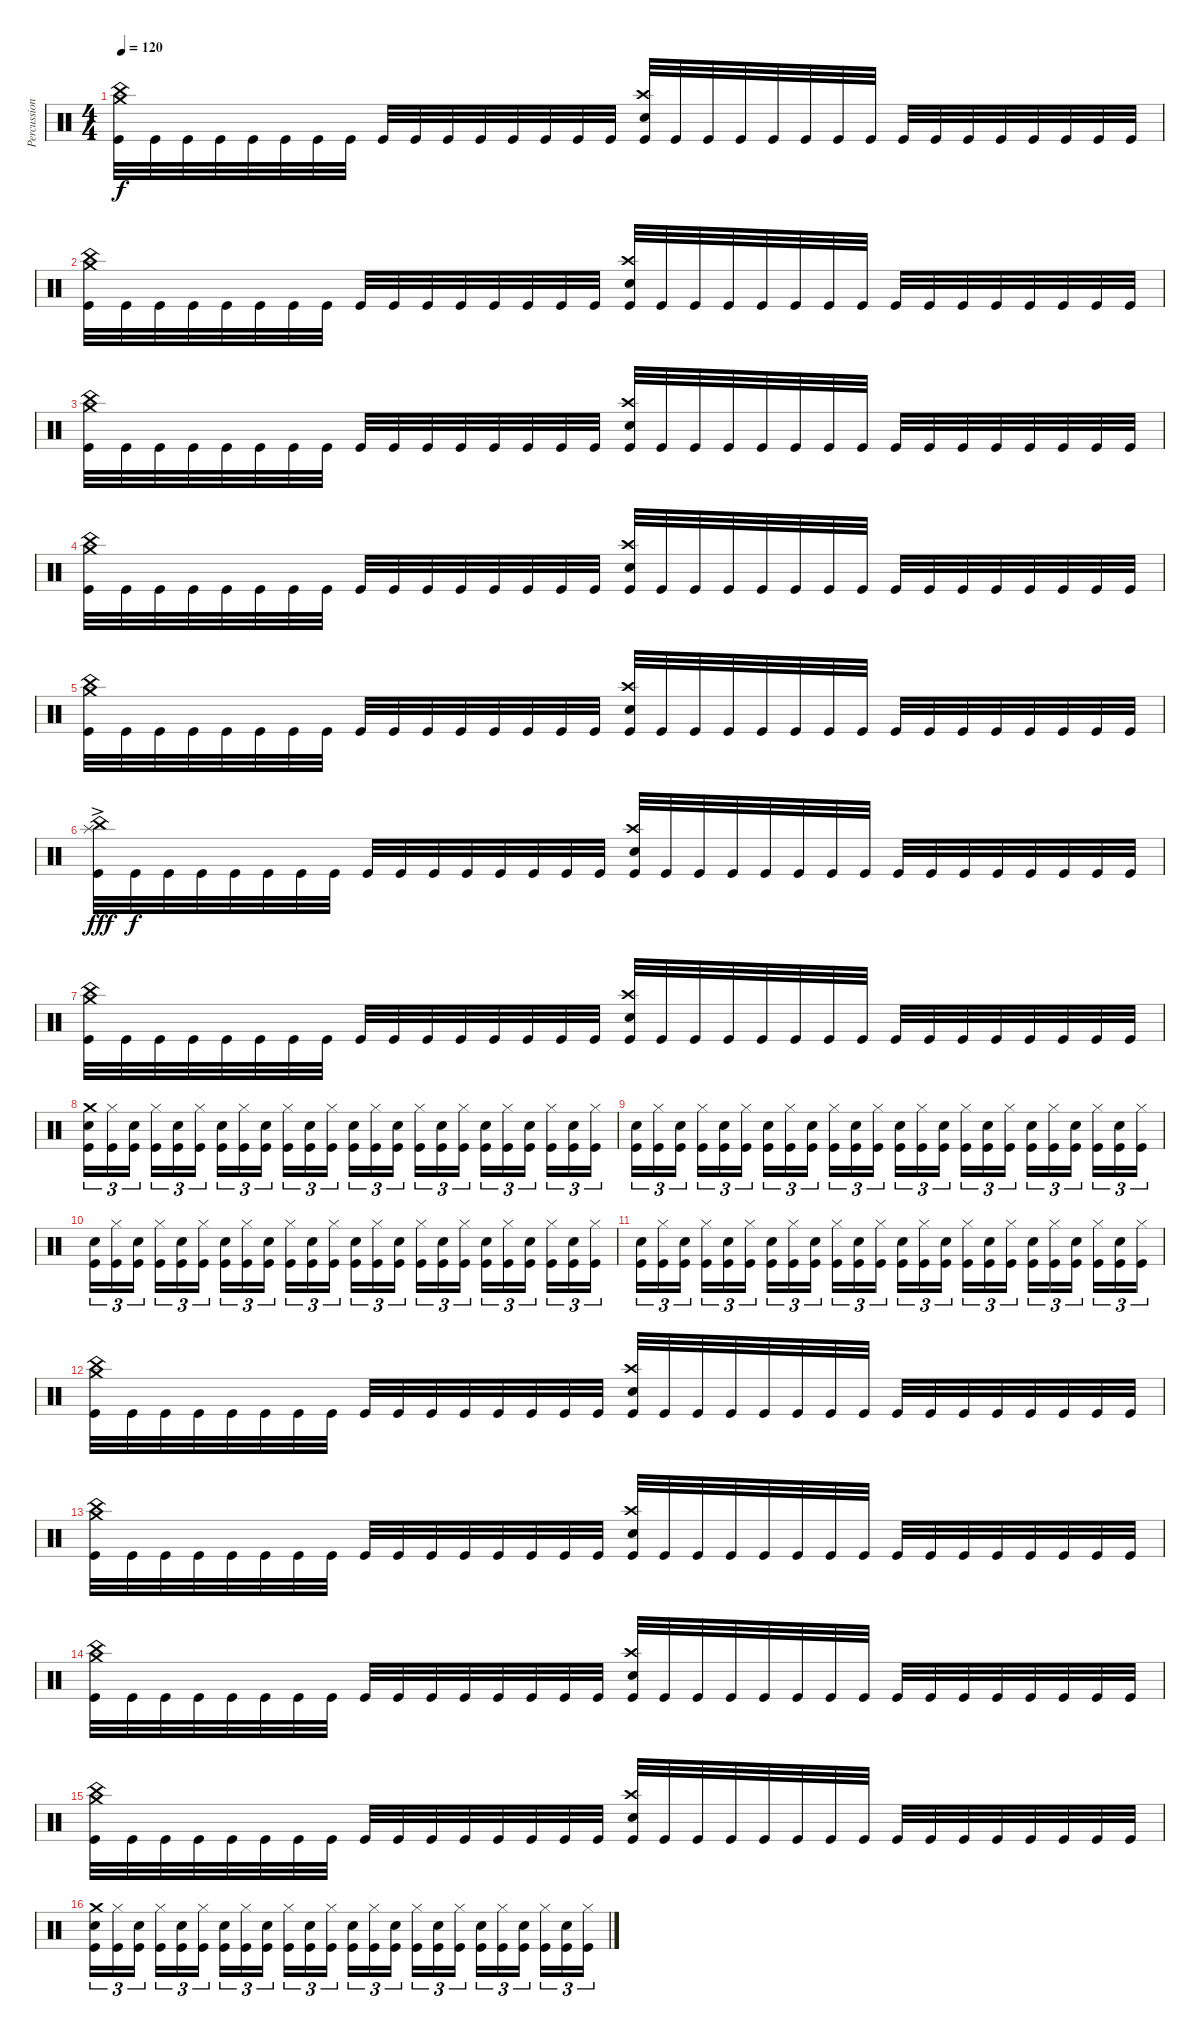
\track ("Percussion" "Percussion") {instrument percussion}
\staff {score}
\articulation defaults
\ts (4 4)
\tempo 120
\clef neutral
\ks c
("Crash medium (hit)" "China (hit)" "Kick (hit)").32{dy f} "Kick (hit)".32 "Kick (hit)".32 "Kick (hit)".32 "Kick (hit)".32 "Kick (hit)".32 "Kick (hit)".32 "Kick (hit)".32 "Kick (hit)".32 "Kick (hit)".32 "Kick (hit)".32 "Kick (hit)".32 "Kick (hit)".32 "Kick (hit)".32 "Kick (hit)".32 "Kick (hit)".32 ("Crash high (hit)" "Electric Snare (hit)" "Kick (hit)").32 "Kick (hit)".32 "Kick (hit)".32 "Kick (hit)".32 "Kick (hit)".32 "Kick (hit)".32 "Kick (hit)".32 "Kick (hit)".32 "Kick (hit)".32 "Kick (hit)".32 "Kick (hit)".32 "Kick (hit)".32 "Kick (hit)".32 "Kick (hit)".32 "Kick (hit)".32 "Kick (hit)".32 |
("Crash medium (hit)" "China (hit)" "Kick (hit)").32 "Kick (hit)".32 "Kick (hit)".32 "Kick (hit)".32 "Kick (hit)".32 "Kick (hit)".32 "Kick (hit)".32 "Kick (hit)".32 "Kick (hit)".32 "Kick (hit)".32 "Kick (hit)".32 "Kick (hit)".32 "Kick (hit)".32 "Kick (hit)".32 "Kick (hit)".32 "Kick (hit)".32 ("Crash high (hit)" "Electric Snare (hit)" "Kick (hit)").32 "Kick (hit)".32 "Kick (hit)".32 "Kick (hit)".32 "Kick (hit)".32 "Kick (hit)".32 "Kick (hit)".32 "Kick (hit)".32 "Kick (hit)".32 "Kick (hit)".32 "Kick (hit)".32 "Kick (hit)".32 "Kick (hit)".32 "Kick (hit)".32 "Kick (hit)".32 "Kick (hit)".32 |
("Crash medium (hit)" "China (hit)" "Kick (hit)").32 "Kick (hit)".32 "Kick (hit)".32 "Kick (hit)".32 "Kick (hit)".32 "Kick (hit)".32 "Kick (hit)".32 "Kick (hit)".32 "Kick (hit)".32 "Kick (hit)".32 "Kick (hit)".32 "Kick (hit)".32 "Kick (hit)".32 "Kick (hit)".32 "Kick (hit)".32 "Kick (hit)".32 ("Crash high (hit)" "Electric Snare (hit)" "Kick (hit)").32 "Kick (hit)".32 "Kick (hit)".32 "Kick (hit)".32 "Kick (hit)".32 "Kick (hit)".32 "Kick (hit)".32 "Kick (hit)".32 "Kick (hit)".32 "Kick (hit)".32 "Kick (hit)".32 "Kick (hit)".32 "Kick (hit)".32 "Kick (hit)".32 "Kick (hit)".32 "Kick (hit)".32 |
("Crash medium (hit)" "China (hit)" "Kick (hit)").32 "Kick (hit)".32 "Kick (hit)".32 "Kick (hit)".32 "Kick (hit)".32 "Kick (hit)".32 "Kick (hit)".32 "Kick (hit)".32 "Kick (hit)".32 "Kick (hit)".32 "Kick (hit)".32 "Kick (hit)".32 "Kick (hit)".32 "Kick (hit)".32 "Kick (hit)".32 "Kick (hit)".32 ("Crash high (hit)" "Electric Snare (hit)" "Kick (hit)").32 "Kick (hit)".32 "Kick (hit)".32 "Kick (hit)".32 "Kick (hit)".32 "Kick (hit)".32 "Kick (hit)".32 "Kick (hit)".32 "Kick (hit)".32 "Kick (hit)".32 "Kick (hit)".32 "Kick (hit)".32 "Kick (hit)".32 "Kick (hit)".32 "Kick (hit)".32 "Kick (hit)".32 |
("Crash medium (hit)" "China (hit)" "Kick (hit)").32 "Kick (hit)".32 "Kick (hit)".32 "Kick (hit)".32 "Kick (hit)".32 "Kick (hit)".32 "Kick (hit)".32 "Kick (hit)".32 "Kick (hit)".32 "Kick (hit)".32 "Kick (hit)".32 "Kick (hit)".32 "Kick (hit)".32 "Kick (hit)".32 "Kick (hit)".32 "Kick (hit)".32 ("Crash high (hit)" "Electric Snare (hit)" "Kick (hit)").32 "Kick (hit)".32 "Kick (hit)".32 "Kick (hit)".32 "Kick (hit)".32 "Kick (hit)".32 "Kick (hit)".32 "Kick (hit)".32 "Kick (hit)".32 "Kick (hit)".32 "Kick (hit)".32 "Kick (hit)".32 "Kick (hit)".32 "Kick (hit)".32 "Kick (hit)".32 "Kick (hit)".32 |
("Splash (hit)"{ac} "China (hit)" "Kick (hit)").32{dy fff} "Kick (hit)".32{dy f} "Kick (hit)".32 "Kick (hit)".32 "Kick (hit)".32 "Kick (hit)".32 "Kick (hit)".32 "Kick (hit)".32 "Kick (hit)".32 "Kick (hit)".32 "Kick (hit)".32 "Kick (hit)".32 "Kick (hit)".32 "Kick (hit)".32 "Kick (hit)".32 "Kick (hit)".32 ("Crash high (hit)" "Electric Snare (hit)" "Kick (hit)").32 "Kick (hit)".32 "Kick (hit)".32 "Kick (hit)".32 "Kick (hit)".32 "Kick (hit)".32 "Kick (hit)".32 "Kick (hit)".32 "Kick (hit)".32 "Kick (hit)".32 "Kick (hit)".32 "Kick (hit)".32 "Kick (hit)".32 "Kick (hit)".32 "Kick (hit)".32 "Kick (hit)".32 |
("Crash medium (hit)" "China (hit)" "Kick (hit)").32 "Kick (hit)".32 "Kick (hit)".32 "Kick (hit)".32 "Kick (hit)".32 "Kick (hit)".32 "Kick (hit)".32 "Kick (hit)".32 "Kick (hit)".32 "Kick (hit)".32 "Kick (hit)".32 "Kick (hit)".32 "Kick (hit)".32 "Kick (hit)".32 "Kick (hit)".32 "Kick (hit)".32 ("Crash high (hit)" "Electric Snare (hit)" "Kick (hit)").32 "Kick (hit)".32 "Kick (hit)".32 "Kick (hit)".32 "Kick (hit)".32 "Kick (hit)".32 "Kick (hit)".32 "Kick (hit)".32 "Kick (hit)".32 "Kick (hit)".32 "Kick (hit)".32 "Kick (hit)".32 "Kick (hit)".32 "Kick (hit)".32 "Kick (hit)".32 "Kick (hit)".32 |
("Crash medium (hit)" "Electric Snare (hit)" "Kick (hit)").16{tu (3 2)} ("Hi-Hat (closed)" "Kick (hit)").16{tu (3 2)} ("Electric Snare (hit)" "Kick (hit)").16{tu (3 2)} ("Hi-Hat (closed)" "Kick (hit)").16{tu (3 2)} ("Electric Snare (hit)" "Kick (hit)").16{tu (3 2)} ("Hi-Hat (closed)" "Kick (hit)").16{tu (3 2)} ("Electric Snare (hit)" "Kick (hit)").16{tu (3 2)} ("Hi-Hat (closed)" "Kick (hit)").16{tu (3 2)} ("Electric Snare (hit)" "Kick (hit)").16{tu (3 2)} ("Hi-Hat (closed)" "Kick (hit)").16{tu (3 2)} ("Electric Snare (hit)" "Kick (hit)").16{tu (3 2)} ("Hi-Hat (closed)" "Kick (hit)").16{tu (3 2)} ("Electric Snare (hit)" "Kick (hit)").16{tu (3 2)} ("Hi-Hat (closed)" "Kick (hit)").16{tu (3 2)} ("Electric Snare (hit)" "Kick (hit)").16{tu (3 2)} ("Hi-Hat (closed)" "Kick (hit)").16{tu (3 2)} ("Electric Snare (hit)" "Kick (hit)").16{tu (3 2)} ("Hi-Hat (closed)" "Kick (hit)").16{tu (3 2)} ("Electric Snare (hit)" "Kick (hit)").16{tu (3 2)} ("Hi-Hat (closed)" "Kick (hit)").16{tu (3 2)} ("Electric Snare (hit)" "Kick (hit)").16{tu (3 2)} ("Hi-Hat (closed)" "Kick (hit)").16{tu (3 2)} ("Electric Snare (hit)" "Kick (hit)").16{tu (3 2)} ("Hi-Hat (closed)" "Kick (hit)").16{tu (3 2)} |
("Electric Snare (hit)" "Kick (hit)").16{tu (3 2)} ("Hi-Hat (closed)" "Kick (hit)").16{tu (3 2)} ("Electric Snare (hit)" "Kick (hit)").16{tu (3 2)} ("Hi-Hat (closed)" "Kick (hit)").16{tu (3 2)} ("Electric Snare (hit)" "Kick (hit)").16{tu (3 2)} ("Hi-Hat (closed)" "Kick (hit)").16{tu (3 2)} ("Electric Snare (hit)" "Kick (hit)").16{tu (3 2)} ("Hi-Hat (closed)" "Kick (hit)").16{tu (3 2)} ("Electric Snare (hit)" "Kick (hit)").16{tu (3 2)} ("Hi-Hat (closed)" "Kick (hit)").16{tu (3 2)} ("Electric Snare (hit)" "Kick (hit)").16{tu (3 2)} ("Hi-Hat (closed)" "Kick (hit)").16{tu (3 2)} ("Electric Snare (hit)" "Kick (hit)").16{tu (3 2)} ("Hi-Hat (closed)" "Kick (hit)").16{tu (3 2)} ("Electric Snare (hit)" "Kick (hit)").16{tu (3 2)} ("Hi-Hat (closed)" "Kick (hit)").16{tu (3 2)} ("Electric Snare (hit)" "Kick (hit)").16{tu (3 2)} ("Hi-Hat (closed)" "Kick (hit)").16{tu (3 2)} ("Electric Snare (hit)" "Kick (hit)").16{tu (3 2)} ("Hi-Hat (closed)" "Kick (hit)").16{tu (3 2)} ("Electric Snare (hit)" "Kick (hit)").16{tu (3 2)} ("Hi-Hat (closed)" "Kick (hit)").16{tu (3 2)} ("Electric Snare (hit)" "Kick (hit)").16{tu (3 2)} ("Hi-Hat (closed)" "Kick (hit)").16{tu (3 2)} |
("Electric Snare (hit)" "Kick (hit)").16{tu (3 2)} ("Hi-Hat (closed)" "Kick (hit)").16{tu (3 2)} ("Electric Snare (hit)" "Kick (hit)").16{tu (3 2)} ("Hi-Hat (closed)" "Kick (hit)").16{tu (3 2)} ("Electric Snare (hit)" "Kick (hit)").16{tu (3 2)} ("Hi-Hat (closed)" "Kick (hit)").16{tu (3 2)} ("Electric Snare (hit)" "Kick (hit)").16{tu (3 2)} ("Hi-Hat (closed)" "Kick (hit)").16{tu (3 2)} ("Electric Snare (hit)" "Kick (hit)").16{tu (3 2)} ("Hi-Hat (closed)" "Kick (hit)").16{tu (3 2)} ("Electric Snare (hit)" "Kick (hit)").16{tu (3 2)} ("Hi-Hat (closed)" "Kick (hit)").16{tu (3 2)} ("Electric Snare (hit)" "Kick (hit)").16{tu (3 2)} ("Hi-Hat (closed)" "Kick (hit)").16{tu (3 2)} ("Electric Snare (hit)" "Kick (hit)").16{tu (3 2)} ("Hi-Hat (closed)" "Kick (hit)").16{tu (3 2)} ("Electric Snare (hit)" "Kick (hit)").16{tu (3 2)} ("Hi-Hat (closed)" "Kick (hit)").16{tu (3 2)} ("Electric Snare (hit)" "Kick (hit)").16{tu (3 2)} ("Hi-Hat (closed)" "Kick (hit)").16{tu (3 2)} ("Electric Snare (hit)" "Kick (hit)").16{tu (3 2)} ("Hi-Hat (closed)" "Kick (hit)").16{tu (3 2)} ("Electric Snare (hit)" "Kick (hit)").16{tu (3 2)} ("Hi-Hat (closed)" "Kick (hit)").16{tu (3 2)} |
("Electric Snare (hit)" "Kick (hit)").16{tu (3 2)} ("Hi-Hat (closed)" "Kick (hit)").16{tu (3 2)} ("Electric Snare (hit)" "Kick (hit)").16{tu (3 2)} ("Hi-Hat (closed)" "Kick (hit)").16{tu (3 2)} ("Electric Snare (hit)" "Kick (hit)").16{tu (3 2)} ("Hi-Hat (closed)" "Kick (hit)").16{tu (3 2)} ("Electric Snare (hit)" "Kick (hit)").16{tu (3 2)} ("Hi-Hat (closed)" "Kick (hit)").16{tu (3 2)} ("Electric Snare (hit)" "Kick (hit)").16{tu (3 2)} ("Hi-Hat (closed)" "Kick (hit)").16{tu (3 2)} ("Electric Snare (hit)" "Kick (hit)").16{tu (3 2)} ("Hi-Hat (closed)" "Kick (hit)").16{tu (3 2)} ("Electric Snare (hit)" "Kick (hit)").16{tu (3 2)} ("Hi-Hat (closed)" "Kick (hit)").16{tu (3 2)} ("Electric Snare (hit)" "Kick (hit)").16{tu (3 2)} ("Hi-Hat (closed)" "Kick (hit)").16{tu (3 2)} ("Electric Snare (hit)" "Kick (hit)").16{tu (3 2)} ("Hi-Hat (closed)" "Kick (hit)").16{tu (3 2)} ("Electric Snare (hit)" "Kick (hit)").16{tu (3 2)} ("Hi-Hat (closed)" "Kick (hit)").16{tu (3 2)} ("Electric Snare (hit)" "Kick (hit)").16{tu (3 2)} ("Hi-Hat (closed)" "Kick (hit)").16{tu (3 2)} ("Electric Snare (hit)" "Kick (hit)").16{tu (3 2)} ("Hi-Hat (closed)" "Kick (hit)").16{tu (3 2)} |
("Crash medium (hit)" "China (hit)" "Kick (hit)").32 "Kick (hit)".32 "Kick (hit)".32 "Kick (hit)".32 "Kick (hit)".32 "Kick (hit)".32 "Kick (hit)".32 "Kick (hit)".32 "Kick (hit)".32 "Kick (hit)".32 "Kick (hit)".32 "Kick (hit)".32 "Kick (hit)".32 "Kick (hit)".32 "Kick (hit)".32 "Kick (hit)".32 ("Crash high (hit)" "Electric Snare (hit)" "Kick (hit)").32 "Kick (hit)".32 "Kick (hit)".32 "Kick (hit)".32 "Kick (hit)".32 "Kick (hit)".32 "Kick (hit)".32 "Kick (hit)".32 "Kick (hit)".32 "Kick (hit)".32 "Kick (hit)".32 "Kick (hit)".32 "Kick (hit)".32 "Kick (hit)".32 "Kick (hit)".32 "Kick (hit)".32 |
("Crash medium (hit)" "China (hit)" "Kick (hit)").32 "Kick (hit)".32 "Kick (hit)".32 "Kick (hit)".32 "Kick (hit)".32 "Kick (hit)".32 "Kick (hit)".32 "Kick (hit)".32 "Kick (hit)".32 "Kick (hit)".32 "Kick (hit)".32 "Kick (hit)".32 "Kick (hit)".32 "Kick (hit)".32 "Kick (hit)".32 "Kick (hit)".32 ("Crash high (hit)" "Electric Snare (hit)" "Kick (hit)").32 "Kick (hit)".32 "Kick (hit)".32 "Kick (hit)".32 "Kick (hit)".32 "Kick (hit)".32 "Kick (hit)".32 "Kick (hit)".32 "Kick (hit)".32 "Kick (hit)".32 "Kick (hit)".32 "Kick (hit)".32 "Kick (hit)".32 "Kick (hit)".32 "Kick (hit)".32 "Kick (hit)".32 |
("Crash medium (hit)" "China (hit)" "Kick (hit)").32 "Kick (hit)".32 "Kick (hit)".32 "Kick (hit)".32 "Kick (hit)".32 "Kick (hit)".32 "Kick (hit)".32 "Kick (hit)".32 "Kick (hit)".32 "Kick (hit)".32 "Kick (hit)".32 "Kick (hit)".32 "Kick (hit)".32 "Kick (hit)".32 "Kick (hit)".32 "Kick (hit)".32 ("Crash high (hit)" "Electric Snare (hit)" "Kick (hit)").32 "Kick (hit)".32 "Kick (hit)".32 "Kick (hit)".32 "Kick (hit)".32 "Kick (hit)".32 "Kick (hit)".32 "Kick (hit)".32 "Kick (hit)".32 "Kick (hit)".32 "Kick (hit)".32 "Kick (hit)".32 "Kick (hit)".32 "Kick (hit)".32 "Kick (hit)".32 "Kick (hit)".32 |
("Crash medium (hit)" "China (hit)" "Kick (hit)").32 "Kick (hit)".32 "Kick (hit)".32 "Kick (hit)".32 "Kick (hit)".32 "Kick (hit)".32 "Kick (hit)".32 "Kick (hit)".32 "Kick (hit)".32 "Kick (hit)".32 "Kick (hit)".32 "Kick (hit)".32 "Kick (hit)".32 "Kick (hit)".32 "Kick (hit)".32 "Kick (hit)".32 ("Crash high (hit)" "Electric Snare (hit)" "Kick (hit)").32 "Kick (hit)".32 "Kick (hit)".32 "Kick (hit)".32 "Kick (hit)".32 "Kick (hit)".32 "Kick (hit)".32 "Kick (hit)".32 "Kick (hit)".32 "Kick (hit)".32 "Kick (hit)".32 "Kick (hit)".32 "Kick (hit)".32 "Kick (hit)".32 "Kick (hit)".32 "Kick (hit)".32 |
("Crash medium (hit)" "Electric Snare (hit)" "Kick (hit)").16{tu (3 2)} ("Hi-Hat (closed)" "Kick (hit)").16{tu (3 2)} ("Electric Snare (hit)" "Kick (hit)").16{tu (3 2)} ("Hi-Hat (closed)" "Kick (hit)").16{tu (3 2)} ("Electric Snare (hit)" "Kick (hit)").16{tu (3 2)} ("Hi-Hat (closed)" "Kick (hit)").16{tu (3 2)} ("Electric Snare (hit)" "Kick (hit)").16{tu (3 2)} ("Hi-Hat (closed)" "Kick (hit)").16{tu (3 2)} ("Electric Snare (hit)" "Kick (hit)").16{tu (3 2)} ("Hi-Hat (closed)" "Kick (hit)").16{tu (3 2)} ("Electric Snare (hit)" "Kick (hit)").16{tu (3 2)} ("Hi-Hat (closed)" "Kick (hit)").16{tu (3 2)} ("Electric Snare (hit)" "Kick (hit)").16{tu (3 2)} ("Hi-Hat (closed)" "Kick (hit)").16{tu (3 2)} ("Electric Snare (hit)" "Kick (hit)").16{tu (3 2)} ("Hi-Hat (closed)" "Kick (hit)").16{tu (3 2)} ("Electric Snare (hit)" "Kick (hit)").16{tu (3 2)} ("Hi-Hat (closed)" "Kick (hit)").16{tu (3 2)} ("Electric Snare (hit)" "Kick (hit)").16{tu (3 2)} ("Hi-Hat (closed)" "Kick (hit)").16{tu (3 2)} ("Electric Snare (hit)" "Kick (hit)").16{tu (3 2)} ("Hi-Hat (closed)" "Kick (hit)").16{tu (3 2)} ("Electric Snare (hit)" "Kick (hit)").16{tu (3 2)} ("Hi-Hat (closed)" "Kick (hit)").16{tu (3 2)}
